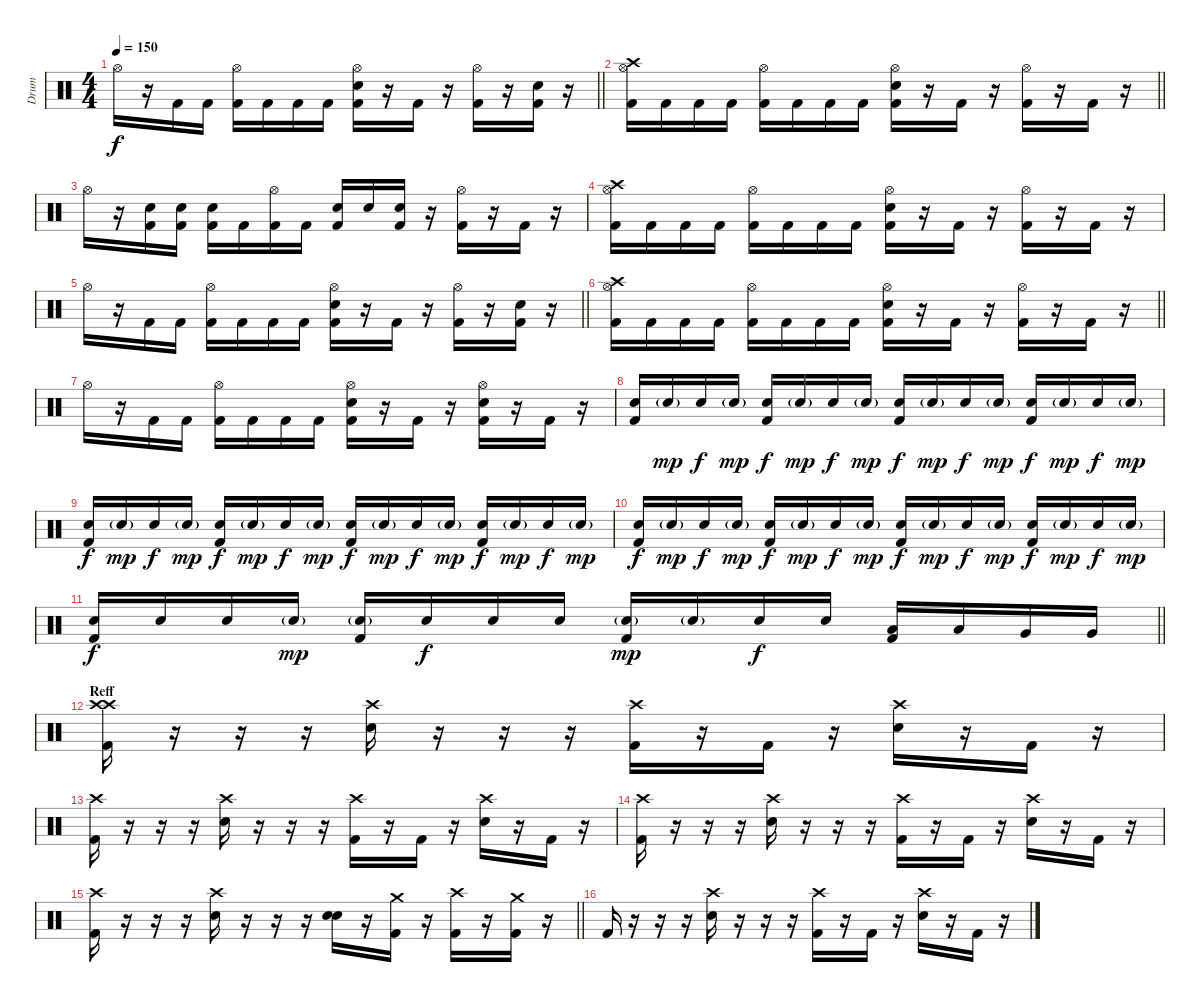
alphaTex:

\track ("Drum" "Drum") {instrument percussion}
\staff {score}
\articulation defaults
\ts (4 4)
\tempo 150
\clef neutral
\barLineRight lightlight
\ks c "Hi-Hat (open)".16{dy f}
r.16 "Kick (hit) 2".16 "Kick (hit) 2".16 ("Hi-Hat (open)" "Kick (hit) 2").16 "Kick (hit) 2".16 "Kick (hit) 2".16 "Kick (hit) 2".16 ("Hi-Hat (open)" "Electric Snare (hit)" "Kick (hit) 2").16 r.16 "Kick (hit) 2".16 r.16 ("Hi-Hat (open)" "Kick (hit) 2").16 r.16 ("Electric Snare (hit)" "Kick (hit) 2").16 r.16 |
\barLineRight lightlight
("Hi-Hat (open)" "Crash high (hit)" "Kick (hit) 2").16 "Kick (hit) 2".16 "Kick (hit) 2".16 "Kick (hit) 2".16 ("Hi-Hat (open)" "Kick (hit) 2").16 "Kick (hit) 2".16 "Kick (hit) 2".16 "Kick (hit) 2".16 ("Hi-Hat (open)" "Electric Snare (hit)" "Kick (hit) 2").16 r.16 "Kick (hit) 2".16 r.16 ("Hi-Hat (open)" "Kick (hit) 2").16 r.16 "Kick (hit) 2".16 r.16 |
"Hi-Hat (open)".16 r.16 ("Electric Snare (hit)" "Kick (hit) 2").16 ("Electric Snare (hit)" "Kick (hit) 2").16 ("Electric Snare (hit)" "Kick (hit) 2").16 "Kick (hit) 2".16 ("Hi-Hat (open)" "Kick (hit) 2").16 "Kick (hit) 2".16 ("Electric Snare (hit)" "Kick (hit) 2").16 "Electric Snare (hit)".16 ("Electric Snare (hit)" "Kick (hit) 2").16 r.16 ("Hi-Hat (open)" "Kick (hit) 2").16 r.16 "Kick (hit) 2".16 r.16 |
("Hi-Hat (open)" "Crash high (hit)" "Kick (hit) 2").16 "Kick (hit) 2".16 "Kick (hit) 2".16 "Kick (hit) 2".16 ("Hi-Hat (open)" "Kick (hit) 2").16 "Kick (hit) 2".16 "Kick (hit) 2".16 "Kick (hit) 2".16 ("Hi-Hat (open)" "Electric Snare (hit)" "Kick (hit) 2").16 r.16 "Kick (hit) 2".16 r.16 ("Hi-Hat (open)" "Kick (hit) 2").16 r.16 "Kick (hit) 2".16 r.16 |
\barLineRight lightlight "Hi-Hat (open)".16
r.16 "Kick (hit) 2".16 "Kick (hit) 2".16 ("Hi-Hat (open)" "Kick (hit) 2").16 "Kick (hit) 2".16 "Kick (hit) 2".16 "Kick (hit) 2".16 ("Hi-Hat (open)" "Electric Snare (hit)" "Kick (hit) 2").16 r.16 "Kick (hit) 2".16 r.16 ("Hi-Hat (open)" "Kick (hit) 2").16 r.16 ("Electric Snare (hit)" "Kick (hit) 2").16 r.16 |
\barLineRight lightlight
("Hi-Hat (open)" "Crash high (hit)" "Kick (hit) 2").16 "Kick (hit) 2".16 "Kick (hit) 2".16 "Kick (hit) 2".16 ("Hi-Hat (open)" "Kick (hit) 2").16 "Kick (hit) 2".16 "Kick (hit) 2".16 "Kick (hit) 2".16 ("Hi-Hat (open)" "Electric Snare (hit)" "Kick (hit) 2").16 r.16 "Kick (hit) 2".16 r.16 ("Hi-Hat (open)" "Kick (hit) 2").16 r.16 "Kick (hit) 2".16 r.16 |
"Hi-Hat (open)".16 r.16 "Kick (hit) 2".16 "Kick (hit) 2".16 ("Hi-Hat (open)" "Kick (hit) 2").16 "Kick (hit) 2".16 "Kick (hit) 2".16 "Kick (hit) 2".16 ("Hi-Hat (open)" "Electric Snare (hit)" "Kick (hit) 2").16 r.16 "Kick (hit) 2".16 r.16 ("Hi-Hat (open)" "Electric Snare (hit)" "Kick (hit) 2").16 r.16 "Kick (hit) 2".16 r.16 |
("Electric Snare (hit)" "Kick (hit) 2").16 "Electric Snare (hit)"{g}.16{dy mp} "Electric Snare (hit)".16{dy f} "Electric Snare (hit)"{g}.16{dy mp} ("Electric Snare (hit)" "Kick (hit) 2").16{dy f} "Electric Snare (hit)"{g}.16{dy mp} "Electric Snare (hit)".16{dy f} "Electric Snare (hit)"{g}.16{dy mp} ("Electric Snare (hit)" "Kick (hit) 2").16{dy f} "Electric Snare (hit)"{g}.16{dy mp} "Electric Snare (hit)".16{dy f} "Electric Snare (hit)"{g}.16{dy mp} ("Electric Snare (hit)" "Kick (hit) 2").16{dy f} "Electric Snare (hit)"{g}.16{dy mp} "Electric Snare (hit)".16{dy f} "Electric Snare (hit)"{g}.16{dy mp} |
("Electric Snare (hit)" "Kick (hit) 2").16{dy f} "Electric Snare (hit)"{g}.16{dy mp} "Electric Snare (hit)".16{dy f} "Electric Snare (hit)"{g}.16{dy mp} ("Electric Snare (hit)" "Kick (hit) 2").16{dy f} "Electric Snare (hit)"{g}.16{dy mp} "Electric Snare (hit)".16{dy f} "Electric Snare (hit)"{g}.16{dy mp} ("Electric Snare (hit)" "Kick (hit) 2").16{dy f} "Electric Snare (hit)"{g}.16{dy mp} "Electric Snare (hit)".16{dy f} "Electric Snare (hit)"{g}.16{dy mp} ("Electric Snare (hit)" "Kick (hit) 2").16{dy f} "Electric Snare (hit)"{g}.16{dy mp} "Electric Snare (hit)".16{dy f} "Electric Snare (hit)"{g}.16{dy mp} |
("Electric Snare (hit)" "Kick (hit) 2").16{dy f} "Electric Snare (hit)"{g}.16{dy mp} "Electric Snare (hit)".16{dy f} "Electric Snare (hit)"{g}.16{dy mp} ("Electric Snare (hit)" "Kick (hit) 2").16{dy f} "Electric Snare (hit)"{g}.16{dy mp} "Electric Snare (hit)".16{dy f} "Electric Snare (hit)"{g}.16{dy mp} ("Electric Snare (hit)" "Kick (hit) 2").16{dy f} "Electric Snare (hit)"{g}.16{dy mp} "Electric Snare (hit)".16{dy f} "Electric Snare (hit)"{g}.16{dy mp} ("Electric Snare (hit)" "Kick (hit) 2").16{dy f} "Electric Snare (hit)"{g}.16{dy mp} "Electric Snare (hit)".16{dy f} "Electric Snare (hit)"{g}.16{dy mp} |
\barLineRight lightlight
("Electric Snare (hit)" "Kick (hit) 2").16{dy f} "Electric Snare (hit)".16 "Electric Snare (hit)".16 "Electric Snare (hit)"{g}.16{dy mp} ("Electric Snare (hit)"{g} "Kick (hit) 2").16 "Electric Snare (hit)".16{dy f} "Electric Snare (hit)".16 "Electric Snare (hit)".16 ("Electric Snare (hit)"{g} "Kick (hit) 2").16{dy mp} "Electric Snare (hit)"{g}.16 "Electric Snare (hit)".16{dy f} "Electric Snare (hit)".16 ("Low Floor Tom (hit)" "Kick (hit) 2").16 "Low Floor Tom (hit)".16 "Very Low Tom (hit)".16 "Very Low Tom (hit)".16 |
\section ("" "Reff")
("Crash high (hit)" "Crash high (hit)" "Kick (hit) 2").16 r.16 r.16 r.16 ("Crash high (hit)" "Electric Snare (hit)").16 r.16 r.16 r.16 ("Crash high (hit)" "Kick (hit) 2").16 r.16 "Kick (hit) 2".16 r.16 ("Crash high (hit)" "Electric Snare (hit)").16 r.16 "Kick (hit) 2".16 r.16 |
("Crash high (hit)" "Kick (hit) 2").16 r.16 r.16 r.16 ("Crash high (hit)" "Electric Snare (hit)").16 r.16 r.16 r.16 ("Crash high (hit)" "Kick (hit) 2").16 r.16 "Kick (hit) 2".16 r.16 ("Crash high (hit)" "Electric Snare (hit)").16 r.16 "Kick (hit) 2".16 r.16 |
("Crash high (hit)" "Kick (hit) 2").16 r.16 r.16 r.16 ("Crash high (hit)" "Electric Snare (hit)").16 r.16 r.16 r.16 ("Crash high (hit)" "Kick (hit) 2").16 r.16 "Kick (hit) 2".16 r.16 ("Crash high (hit)" "Electric Snare (hit)").16 r.16 "Kick (hit) 2".16 r.16 |
\barLineRight lightlight
("Crash high (hit)" "Kick (hit) 2").16 r.16 r.16 r.16 ("Crash high (hit)" "Electric Snare (hit)").16 r.16 r.16 r.16 ("Electric Snare (hit)" "Electric Snare (hit)").16 r.16 ("Crash medium (hit)" "Kick (hit) 2").16 r.16 ("Crash high (hit)" "Kick (hit) 2").16 r.16 ("Crash medium (hit)" "Kick (hit) 2").16 r.16 |
"Kick (hit) 2".16 r.16 r.16 r.16 ("Crash high (hit)" "Electric Snare (hit)").16 r.16 r.16 r.16 ("Crash high (hit)" "Kick (hit) 2").16 r.16 "Kick (hit) 2".16 r.16 ("Crash high (hit)" "Electric Snare (hit)").16 r.16 "Kick (hit) 2".16 r.16
